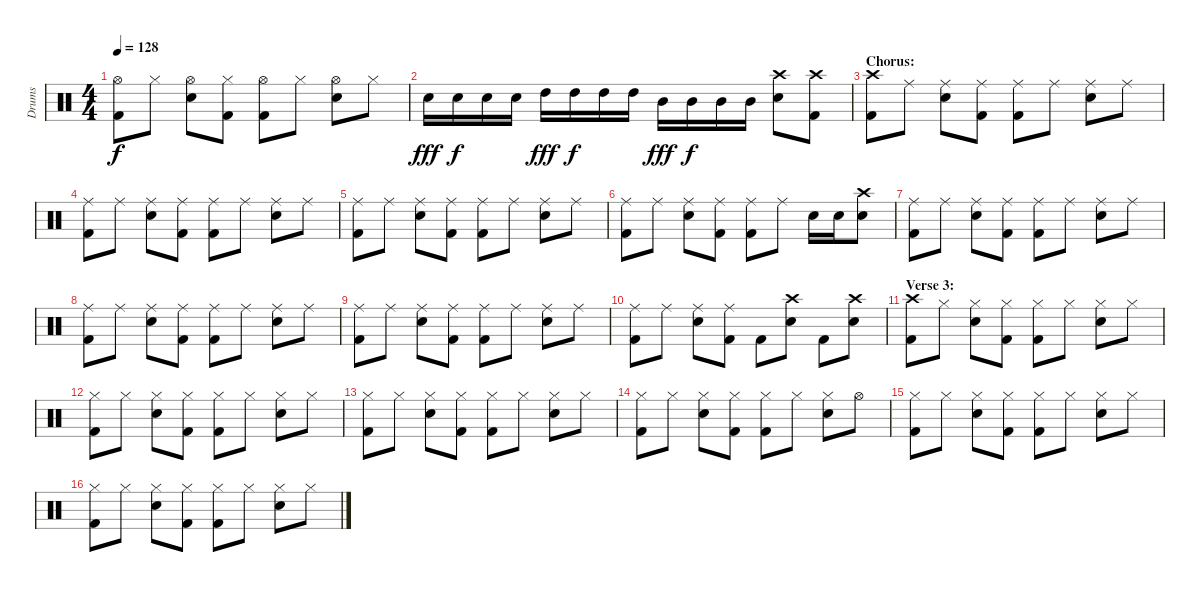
\track ("Drums" "Drums") {instrument percussion}
\staff {score}
\articulation defaults
\ts (4 4)
\tempo 128
\clef neutral
\ks c
("Hi-Hat (open)" "Kick (hit) 2").8{dy f} "Hi-Hat (closed)".8 ("Hi-Hat (open)" "Electric Snare (hit)").8 ("Hi-Hat (closed)" "Kick (hit) 2").8 ("Hi-Hat (open)" "Kick (hit) 2").8 "Hi-Hat (closed)".8 ("Hi-Hat (open)" "Electric Snare (hit)").8 "Hi-Hat (closed)".8 |
"Electric Snare (hit)".16{dy fff} "Electric Snare (hit)".16{dy f} "Electric Snare (hit)".16 "Electric Snare (hit)".16 "High Tom (hit)".16{dy fff} "High Tom (hit)".16{dy f} "High Tom (hit)".16 "High Tom (hit)".16 "Mid Tom (hit)".16{dy fff} "Mid Tom (hit)".16{dy f} "Mid Tom (hit)".16 "Mid Tom (hit)".16 ("Crash high (hit)" "Electric Snare (hit)").8 ("Crash high (hit)" "Kick (hit) 2").8 |
\section ("" "Chorus:")
("Crash high (hit)" "Kick (hit) 2").8 "Ride (middle)".8 ("Ride (middle)" "Electric Snare (hit)").8 ("Ride (middle)" "Kick (hit) 2").8 ("Ride (middle)" "Kick (hit) 2").8 "Ride (middle)".8 ("Ride (middle)" "Electric Snare (hit)").8 "Ride (middle)".8 |
("Ride (middle)" "Kick (hit) 2").8 "Ride (middle)".8 ("Ride (middle)" "Electric Snare (hit)").8 ("Ride (middle)" "Kick (hit) 2").8 ("Ride (middle)" "Kick (hit) 2").8 "Ride (middle)".8 ("Ride (middle)" "Electric Snare (hit)").8 "Ride (middle)".8 |
("Ride (middle)" "Kick (hit) 2").8 "Ride (middle)".8 ("Ride (middle)" "Electric Snare (hit)").8 ("Ride (middle)" "Kick (hit) 2").8 ("Ride (middle)" "Kick (hit) 2").8 "Ride (middle)".8 ("Ride (middle)" "Electric Snare (hit)").8 "Ride (middle)".8 |
("Ride (middle)" "Kick (hit) 2").8 "Ride (middle)".8 ("Ride (middle)" "Electric Snare (hit)").8 ("Ride (middle)" "Kick (hit) 2").8 ("Ride (middle)" "Kick (hit) 2").8 "Ride (middle)".8 "Electric Snare (hit)".16 "Electric Snare (hit)".16 ("Crash high (hit)" "Electric Snare (hit)").8 |
("Ride (middle)" "Kick (hit) 2").8 "Ride (middle)".8 ("Ride (middle)" "Electric Snare (hit)").8 ("Ride (middle)" "Kick (hit) 2").8 ("Ride (middle)" "Kick (hit) 2").8 "Ride (middle)".8 ("Ride (middle)" "Electric Snare (hit)").8 "Ride (middle)".8 |
("Ride (middle)" "Kick (hit) 2").8 "Ride (middle)".8 ("Ride (middle)" "Electric Snare (hit)").8 ("Ride (middle)" "Kick (hit) 2").8 ("Ride (middle)" "Kick (hit) 2").8 "Ride (middle)".8 ("Ride (middle)" "Electric Snare (hit)").8 "Ride (middle)".8 |
("Ride (middle)" "Kick (hit) 2").8 "Ride (middle)".8 ("Ride (middle)" "Electric Snare (hit)").8 ("Ride (middle)" "Kick (hit) 2").8 ("Ride (middle)" "Kick (hit) 2").8 "Ride (middle)".8 ("Ride (middle)" "Electric Snare (hit)").8 "Ride (middle)".8 |
("Ride (middle)" "Kick (hit) 2").8 "Ride (middle)".8 ("Ride (middle)" "Electric Snare (hit)").8 ("Ride (middle)" "Kick (hit) 2").8 "Kick (hit) 2".8 ("Crash high (hit)" "Electric Snare (hit)").8 "Kick (hit) 2".8 ("Crash high (hit)" "Electric Snare (hit)").8 |
\section ("" "Verse 3:")
("Crash high (hit)" "Kick (hit) 2").8 "Hi-Hat (closed)".8 ("Hi-Hat (closed)" "Electric Snare (hit)").8 ("Hi-Hat (closed)" "Kick (hit) 2").8 ("Hi-Hat (closed)" "Kick (hit) 2").8 "Hi-Hat (closed)".8 ("Hi-Hat (closed)" "Electric Snare (hit)").8 "Hi-Hat (closed)".8 |
("Hi-Hat (closed)" "Kick (hit) 2").8 "Hi-Hat (closed)".8 ("Hi-Hat (closed)" "Electric Snare (hit)").8 ("Hi-Hat (closed)" "Kick (hit) 2").8 ("Hi-Hat (closed)" "Kick (hit) 2").8 "Hi-Hat (closed)".8 ("Hi-Hat (closed)" "Electric Snare (hit)").8 "Hi-Hat (closed)".8 |
("Hi-Hat (closed)" "Kick (hit) 2").8 "Hi-Hat (closed)".8 ("Hi-Hat (closed)" "Electric Snare (hit)").8 ("Hi-Hat (closed)" "Kick (hit) 2").8 ("Hi-Hat (closed)" "Kick (hit) 2").8 "Hi-Hat (closed)".8 ("Hi-Hat (closed)" "Electric Snare (hit)").8 "Hi-Hat (closed)".8 |
("Hi-Hat (closed)" "Kick (hit) 2").8 "Hi-Hat (closed)".8 ("Hi-Hat (closed)" "Electric Snare (hit)").8 ("Hi-Hat (closed)" "Kick (hit) 2").8 ("Hi-Hat (closed)" "Kick (hit) 2").8 "Hi-Hat (closed)".8 ("Hi-Hat (closed)" "Electric Snare (hit)").8 "Hi-Hat (open)".8 |
("Hi-Hat (closed)" "Kick (hit) 2").8 "Hi-Hat (closed)".8 ("Hi-Hat (closed)" "Electric Snare (hit)").8 ("Hi-Hat (closed)" "Kick (hit) 2").8 ("Hi-Hat (closed)" "Kick (hit) 2").8 "Hi-Hat (closed)".8 ("Hi-Hat (closed)" "Electric Snare (hit)").8 "Hi-Hat (closed)".8 |
("Hi-Hat (closed)" "Kick (hit) 2").8 "Hi-Hat (closed)".8 ("Hi-Hat (closed)" "Electric Snare (hit)").8 ("Hi-Hat (closed)" "Kick (hit) 2").8 ("Hi-Hat (closed)" "Kick (hit) 2").8 "Hi-Hat (closed)".8 ("Hi-Hat (closed)" "Electric Snare (hit)").8 "Hi-Hat (closed)".8
